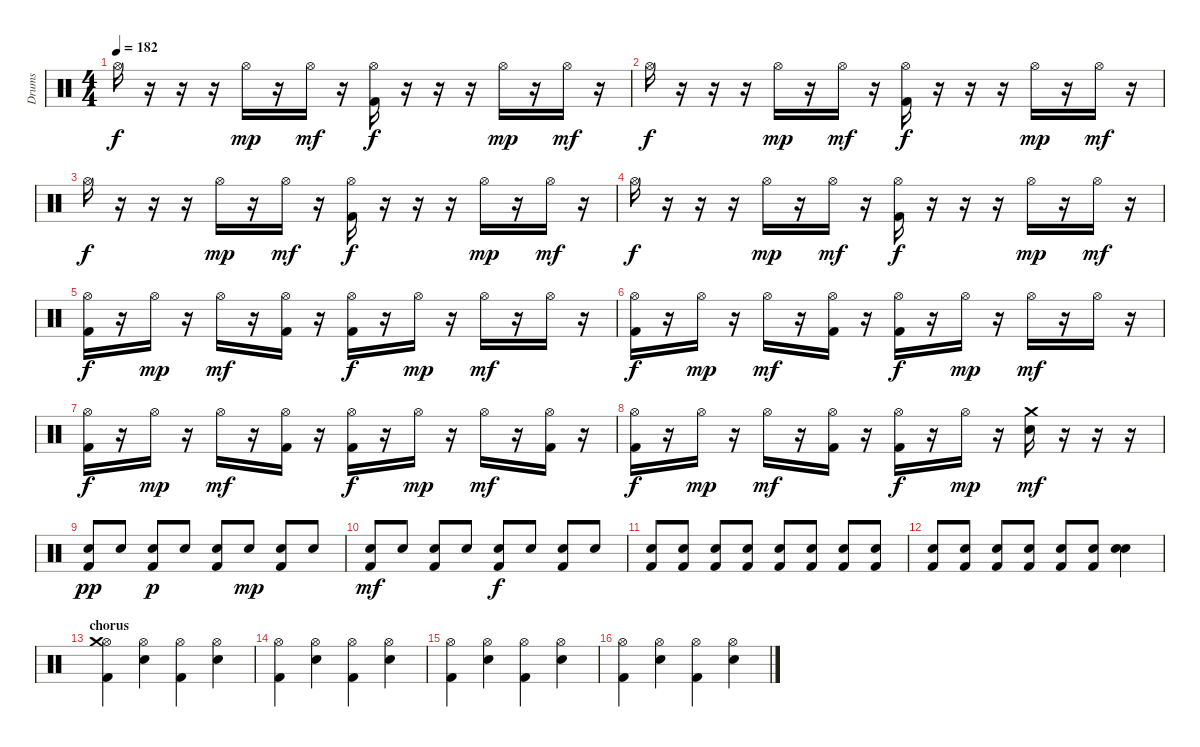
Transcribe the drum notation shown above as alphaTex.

\track ("Drums" "Drums") {instrument percussion}
\staff {score}
\articulation defaults
\ts (4 4)
\tempo 182
\clef neutral
\ks c "Hi-Hat (open)".16{dy f}
r.16 r.16 r.16 "Hi-Hat (open)".16{dy mp} r.16 "Hi-Hat (open)".16{dy mf} r.16 ("Kick (hit) 2" "Hi-Hat (open)").16{dy f} r.16 r.16 r.16 "Hi-Hat (open)".16{dy mp} r.16 "Hi-Hat (open)".16{dy mf} r.16 |
"Hi-Hat (open)".16{dy f} r.16 r.16 r.16 "Hi-Hat (open)".16{dy mp} r.16 "Hi-Hat (open)".16{dy mf} r.16 ("Kick (hit) 2" "Hi-Hat (open)").16{dy f} r.16 r.16 r.16 "Hi-Hat (open)".16{dy mp} r.16 "Hi-Hat (open)".16{dy mf} r.16 |
"Hi-Hat (open)".16{dy f} r.16 r.16 r.16 "Hi-Hat (open)".16{dy mp} r.16 "Hi-Hat (open)".16{dy mf} r.16 ("Kick (hit) 2" "Hi-Hat (open)").16{dy f} r.16 r.16 r.16 "Hi-Hat (open)".16{dy mp} r.16 "Hi-Hat (open)".16{dy mf} r.16 |
"Hi-Hat (open)".16{dy f} r.16 r.16 r.16 "Hi-Hat (open)".16{dy mp} r.16 "Hi-Hat (open)".16{dy mf} r.16 ("Kick (hit) 2" "Hi-Hat (open)").16{dy f} r.16 r.16 r.16 "Hi-Hat (open)".16{dy mp} r.16 "Hi-Hat (open)".16{dy mf} r.16 |
("Kick (hit) 2" "Hi-Hat (open)").16{dy f} r.16 "Hi-Hat (open)".16{dy mp} r.16 "Hi-Hat (open)".16{dy mf} r.16 ("Kick (hit) 2" "Hi-Hat (open)").16 r.16 ("Kick (hit) 2" "Hi-Hat (open)").16{dy f} r.16 "Hi-Hat (open)".16{dy mp} r.16 "Hi-Hat (open)".16{dy mf} r.16 "Hi-Hat (open)".16 r.16 |
("Kick (hit) 2" "Hi-Hat (open)").16{dy f} r.16 "Hi-Hat (open)".16{dy mp} r.16 "Hi-Hat (open)".16{dy mf} r.16 ("Kick (hit) 2" "Hi-Hat (open)").16 r.16 ("Kick (hit) 2" "Hi-Hat (open)").16{dy f} r.16 "Hi-Hat (open)".16{dy mp} r.16 "Hi-Hat (open)".16{dy mf} r.16 "Hi-Hat (open)".16 r.16 |
("Kick (hit) 2" "Hi-Hat (open)").16{dy f} r.16 "Hi-Hat (open)".16{dy mp} r.16 "Hi-Hat (open)".16{dy mf} r.16 ("Kick (hit) 2" "Hi-Hat (open)").16 r.16 ("Kick (hit) 2" "Hi-Hat (open)").16{dy f} r.16 "Hi-Hat (open)".16{dy mp} r.16 "Hi-Hat (open)".16{dy mf} r.16 ("Kick (hit) 2" "Hi-Hat (open)").16 r.16 |
("Kick (hit) 2" "Hi-Hat (open)").16{dy f} r.16 "Hi-Hat (open)".16{dy mp} r.16 "Hi-Hat (open)".16{dy mf} r.16 ("Kick (hit) 2" "Hi-Hat (open)").16 r.16 ("Kick (hit) 2" "Hi-Hat (open)").16{dy f} r.16 "Hi-Hat (open)".16{dy mp} r.16 ("Snare (hit) 2" "Crash medium (hit)").16{dy mf} r.16 r.16 r.16 |
("Kick (hit) 2" "Snare (hit) 2").8{dy pp} "Snare (hit) 2".8 ("Kick (hit) 2" "Snare (hit) 2").8{dy p} "Snare (hit) 2".8 ("Kick (hit) 2" "Snare (hit) 2").8 "Snare (hit) 2".8{dy mp} ("Kick (hit) 2" "Snare (hit) 2").8 "Snare (hit) 2".8 |
("Kick (hit) 2" "Snare (hit) 2").8{dy mf} "Snare (hit) 2".8 ("Kick (hit) 2" "Snare (hit) 2").8 "Snare (hit) 2".8 ("Kick (hit) 2" "Snare (hit) 2").8{dy f} "Snare (hit) 2".8 ("Kick (hit) 2" "Snare (hit) 2").8 "Snare (hit) 2".8 |
("Kick (hit) 2" "Snare (hit) 2").8 ("Kick (hit) 2" "Snare (hit) 2").8 ("Kick (hit) 2" "Snare (hit) 2").8 ("Kick (hit) 2" "Snare (hit) 2").8 ("Kick (hit) 2" "Snare (hit) 2").8 ("Kick (hit) 2" "Snare (hit) 2").8 ("Kick (hit) 2" "Snare (hit) 2").8 ("Kick (hit) 2" "Snare (hit) 2").8 |
("Kick (hit) 2" "Snare (hit) 2").8 ("Kick (hit) 2" "Snare (hit) 2").8 ("Kick (hit) 2" "Snare (hit) 2").8 ("Kick (hit) 2" "Snare (hit) 2").8 ("Kick (hit) 2" "Snare (hit) 2").8 ("Kick (hit) 2" "Snare (hit) 2").8 ("Snare (hit) 2" "Electric Snare (hit)").4 |
\section ("" "chorus")
("Kick (hit) 2" "Hi-Hat (open)" "Crash medium (hit)").4 ("Snare (hit) 2" "Hi-Hat (open)").4 ("Kick (hit) 2" "Hi-Hat (open)").4 ("Snare (hit) 2" "Hi-Hat (open)").4 |
("Kick (hit) 2" "Hi-Hat (open)").4 ("Snare (hit) 2" "Hi-Hat (open)").4 ("Kick (hit) 2" "Hi-Hat (open)").4 ("Snare (hit) 2" "Hi-Hat (open)").4 |
("Kick (hit) 2" "Hi-Hat (open)").4 ("Snare (hit) 2" "Hi-Hat (open)").4 ("Kick (hit) 2" "Hi-Hat (open)").4 ("Snare (hit) 2" "Hi-Hat (open)").4 |
("Kick (hit) 2" "Hi-Hat (open)").4 ("Snare (hit) 2" "Hi-Hat (open)").4 ("Kick (hit) 2" "Hi-Hat (open)").4 ("Snare (hit) 2" "Hi-Hat (open)").4
